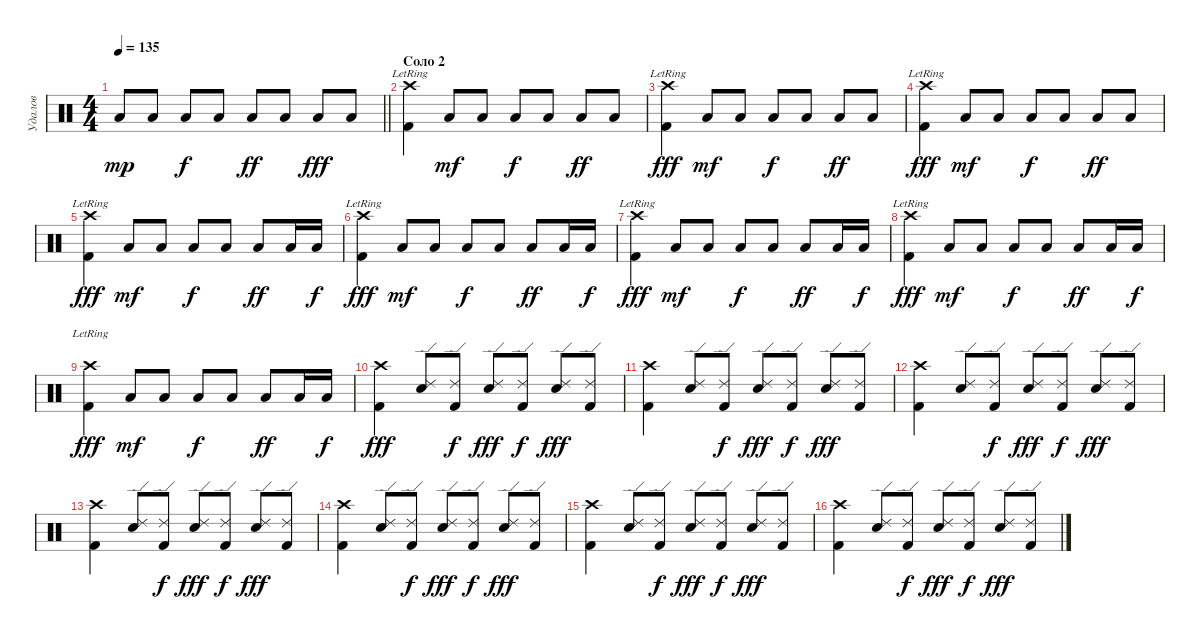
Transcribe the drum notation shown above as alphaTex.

\track ("Удалов" "Удалов") {instrument percussion}
\staff {score}
\articulation defaults
\ts (4 4)
\tempo 135
\clef neutral
\barLineRight lightlight
\ks c "Low Tom (hit)".8{dy mp} "Low Tom (hit)".8 "Low Tom (hit)".8{dy f} "Low Tom (hit)".8 "Low Tom (hit)".8{dy ff} "Low Tom (hit)".8 "Low Tom (hit)".8{dy fff} "Low Tom (hit)".8
|
\section ("" "Соло 2")
("Crash high (hit)"{lr} "Kick (hit) 2").4 "Low Tom (hit)".8{dy mf} "Low Tom (hit)".8 "Low Tom (hit)".8{dy f} "Low Tom (hit)".8 "Low Tom (hit)".8{dy ff} "Low Tom (hit)".8 |
("Crash high (hit)"{lr} "Kick (hit) 2").4{dy fff} "Low Tom (hit)".8{dy mf} "Low Tom (hit)".8 "Low Tom (hit)".8{dy f} "Low Tom (hit)".8 "Low Tom (hit)".8{dy ff} "Low Tom (hit)".8 |
("Crash high (hit)"{lr} "Kick (hit) 2").4{dy fff} "Low Tom (hit)".8{dy mf} "Low Tom (hit)".8 "Low Tom (hit)".8{dy f} "Low Tom (hit)".8 "Low Tom (hit)".8{dy ff} "Low Tom (hit)".8 |
("Crash high (hit)"{lr} "Kick (hit) 2").4{dy fff} "Low Tom (hit)".8{dy mf} "Low Tom (hit)".8 "Low Tom (hit)".8{dy f} "Low Tom (hit)".8 "Low Tom (hit)".8{dy ff} "Low Tom (hit)".16 "Low Tom (hit)".16{dy f} |
("Crash high (hit)"{lr} "Kick (hit) 2").4{dy fff} "Low Tom (hit)".8{dy mf} "Low Tom (hit)".8 "Low Tom (hit)".8{dy f} "Low Tom (hit)".8 "Low Tom (hit)".8{dy ff} "Low Tom (hit)".16 "Low Tom (hit)".16{dy f} |
("Crash high (hit)"{lr} "Kick (hit) 2").4{dy fff} "Low Tom (hit)".8{dy mf} "Low Tom (hit)".8 "Low Tom (hit)".8{dy f} "Low Tom (hit)".8 "Low Tom (hit)".8{dy ff} "Low Tom (hit)".16 "Low Tom (hit)".16{dy f} |
("Crash high (hit)"{lr} "Kick (hit) 2").4{dy fff} "Low Tom (hit)".8{dy mf} "Low Tom (hit)".8 "Low Tom (hit)".8{dy f} "Low Tom (hit)".8 "Low Tom (hit)".8{dy ff} "Low Tom (hit)".16 "Low Tom (hit)".16{dy f} |
("Crash high (hit)"{lr} "Kick (hit) 2").4{dy fff} "Low Tom (hit)".8{dy mf} "Low Tom (hit)".8 "Low Tom (hit)".8{dy f} "Low Tom (hit)".8 "Low Tom (hit)".8{dy ff} "Low Tom (hit)".16 "Low Tom (hit)".16{dy f} |
("Crash high (hit)" "Kick (hit) 2").4{dy fff} ("Ride (edge) 2" "Snare (hit) 2").8 ("Ride (edge) 2" "Kick (hit) 2").8{dy f} ("Ride (edge) 2" "Snare (hit) 2").8{dy fff} ("Ride (edge) 2" "Kick (hit) 2").8{dy f} ("Ride (edge) 2" "Snare (hit) 2").8{dy fff} ("Ride (edge) 2" "Kick (hit) 2").8 |
("Crash high (hit)" "Kick (hit) 2").4 ("Ride (edge) 2" "Snare (hit) 2").8 ("Ride (edge) 2" "Kick (hit) 2").8{dy f} ("Ride (edge) 2" "Snare (hit) 2").8{dy fff} ("Ride (edge) 2" "Kick (hit) 2").8{dy f} ("Ride (edge) 2" "Snare (hit) 2").8{dy fff} ("Ride (edge) 2" "Kick (hit) 2").8 |
("Crash high (hit)" "Kick (hit) 2").4 ("Ride (edge) 2" "Snare (hit) 2").8 ("Ride (edge) 2" "Kick (hit) 2").8{dy f} ("Ride (edge) 2" "Snare (hit) 2").8{dy fff} ("Ride (edge) 2" "Kick (hit) 2").8{dy f} ("Ride (edge) 2" "Snare (hit) 2").8{dy fff} ("Ride (edge) 2" "Kick (hit) 2").8 |
("Crash high (hit)" "Kick (hit) 2").4 ("Ride (edge) 2" "Snare (hit) 2").8 ("Ride (edge) 2" "Kick (hit) 2").8{dy f} ("Ride (edge) 2" "Snare (hit) 2").8{dy fff} ("Ride (edge) 2" "Kick (hit) 2").8{dy f} ("Ride (edge) 2" "Snare (hit) 2").8{dy fff} ("Ride (edge) 2" "Kick (hit) 2").8 |
("Crash high (hit)" "Kick (hit) 2").4 ("Ride (edge) 2" "Snare (hit) 2").8 ("Ride (edge) 2" "Kick (hit) 2").8{dy f} ("Ride (edge) 2" "Snare (hit) 2").8{dy fff} ("Ride (edge) 2" "Kick (hit) 2").8{dy f} ("Ride (edge) 2" "Snare (hit) 2").8{dy fff} ("Ride (edge) 2" "Kick (hit) 2").8 |
("Crash high (hit)" "Kick (hit) 2").4 ("Ride (edge) 2" "Snare (hit) 2").8 ("Ride (edge) 2" "Kick (hit) 2").8{dy f} ("Ride (edge) 2" "Snare (hit) 2").8{dy fff} ("Ride (edge) 2" "Kick (hit) 2").8{dy f} ("Ride (edge) 2" "Snare (hit) 2").8{dy fff} ("Ride (edge) 2" "Kick (hit) 2").8 |
("Crash high (hit)" "Kick (hit) 2").4 ("Ride (edge) 2" "Snare (hit) 2").8 ("Ride (edge) 2" "Kick (hit) 2").8{dy f} ("Ride (edge) 2" "Snare (hit) 2").8{dy fff} ("Ride (edge) 2" "Kick (hit) 2").8{dy f} ("Ride (edge) 2" "Snare (hit) 2").8{dy fff} ("Ride (edge) 2" "Kick (hit) 2").8
